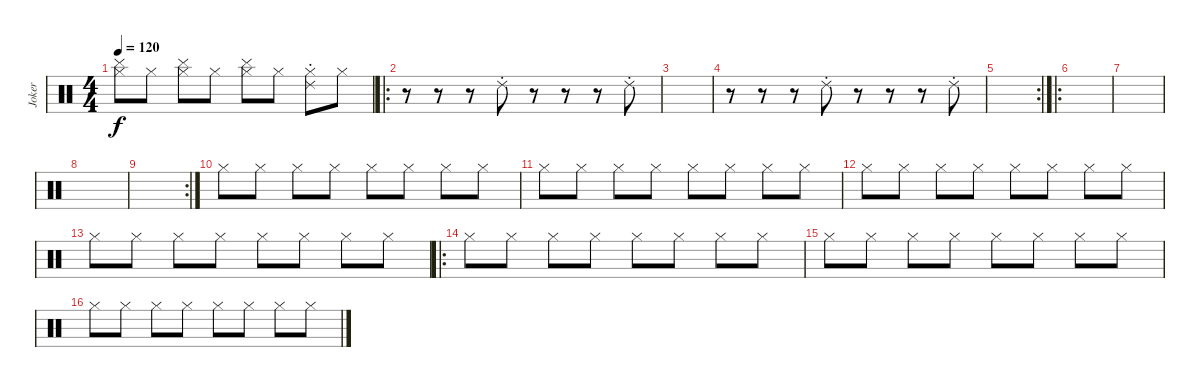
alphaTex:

\track ("Joker" "Joker") {instrument percussion}
\staff {score}
\articulation defaults
\ts (4 4)
\tempo 120
\clef neutral
\ks c
("Cymbal (hit)" "Hi-Hat (closed)").8{dy f} "Hi-Hat (closed)".8 ("Cymbal (hit)" "Hi-Hat (closed)").8 "Hi-Hat (closed)".8 ("Cymbal (hit)" "Hi-Hat (closed)").8 "Hi-Hat (closed)".8 ("Ride (choke) 2" "Hi-Hat (closed)").8 "Hi-Hat (closed)".8 |
\ro
r.8 r.8 r.8 "Ride (choke) 2".8 r.8 r.8 r.8 "Ride (choke) 2".8 |
|
r.8 r.8 r.8 "Ride (choke) 2".8 r.8 r.8 r.8 "Ride (choke) 2".8 |
\rc 2
|
\ro
|
|
|
\rc 2
|
"Hi-Hat (closed)".8{volume 7} "Hi-Hat (closed)".8 "Hi-Hat (closed)".8 "Hi-Hat (closed)".8 "Hi-Hat (closed)".8 "Hi-Hat (closed)".8 "Hi-Hat (closed)".8 "Hi-Hat (closed)".8 |
"Hi-Hat (closed)".8 "Hi-Hat (closed)".8 "Hi-Hat (closed)".8 "Hi-Hat (closed)".8 "Hi-Hat (closed)".8 "Hi-Hat (closed)".8 "Hi-Hat (closed)".8 "Hi-Hat (closed)".8 |
"Hi-Hat (closed)".8 "Hi-Hat (closed)".8 "Hi-Hat (closed)".8 "Hi-Hat (closed)".8 "Hi-Hat (closed)".8 "Hi-Hat (closed)".8 "Hi-Hat (closed)".8 "Hi-Hat (closed)".8 |
"Hi-Hat (closed)".8 "Hi-Hat (closed)".8 "Hi-Hat (closed)".8 "Hi-Hat (closed)".8 "Hi-Hat (closed)".8 "Hi-Hat (closed)".8 "Hi-Hat (closed)".8 "Hi-Hat (closed)".8 |
\ro "Hi-Hat (closed)".8{volume 7} "Hi-Hat (closed)".8 "Hi-Hat (closed)".8 "Hi-Hat (closed)".8 "Hi-Hat (closed)".8 "Hi-Hat (closed)".8 "Hi-Hat (closed)".8 "Hi-Hat (closed)".8
|
"Hi-Hat (closed)".8 "Hi-Hat (closed)".8 "Hi-Hat (closed)".8 "Hi-Hat (closed)".8 "Hi-Hat (closed)".8 "Hi-Hat (closed)".8 "Hi-Hat (closed)".8 "Hi-Hat (closed)".8 |
"Hi-Hat (closed)".8 "Hi-Hat (closed)".8 "Hi-Hat (closed)".8 "Hi-Hat (closed)".8 "Hi-Hat (closed)".8 "Hi-Hat (closed)".8 "Hi-Hat (closed)".8 "Hi-Hat (closed)".8
